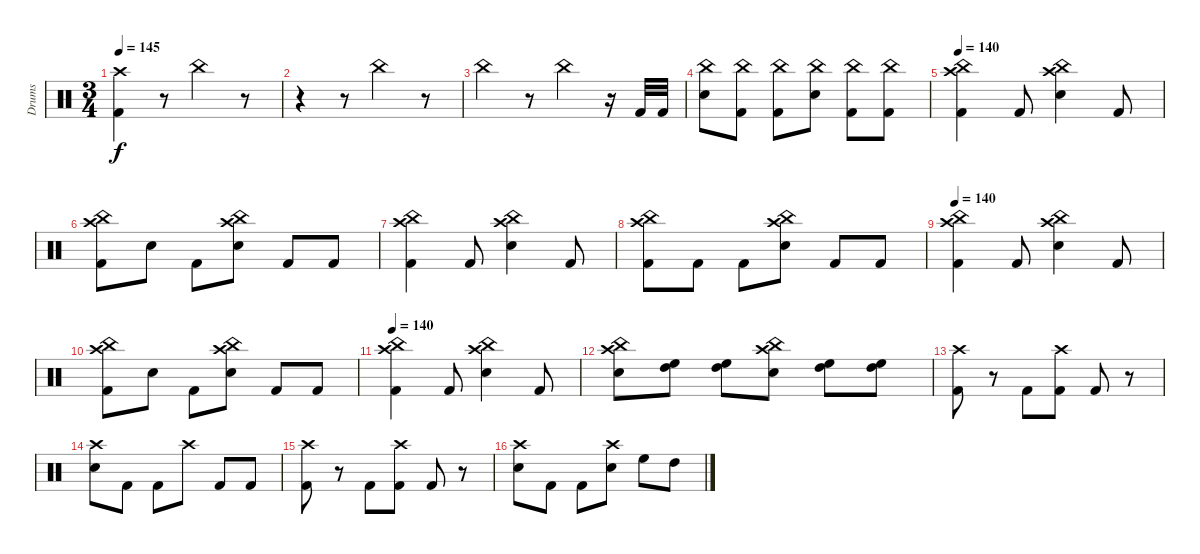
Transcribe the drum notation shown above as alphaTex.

\track ("Drums" "Drums") {instrument percussion}
\staff {score}
\articulation defaults
\ts (3 4)
\tempo 145
\clef neutral
\ks c
("Crash high (hit)" "Kick (hit) 2").4{dy f} r.8 "China (hit)".4 r.8 |
r.4 r.8 "China (hit)".4 r.8 |
"China (hit)".4 r.8 "China (hit)".4 r.16 "Kick (hit) 2".32 "Kick (hit) 2".32 |
("China (hit)" "Electric Snare (hit)").8 ("China (hit)" "Kick (hit) 2").8 ("China (hit)" "Kick (hit) 2").8 ("China (hit)" "Electric Snare (hit)").8 ("China (hit)" "Kick (hit) 2").8 ("China (hit)" "Kick (hit) 2").8 |
\tempo 140
("Crash high (hit)" "China (hit)" "Kick (hit) 2").4 "Kick (hit) 2".8 ("Crash high (hit)" "China (hit)" "Electric Snare (hit)").4 "Kick (hit) 2".8 |
("Crash high (hit)" "China (hit)" "Kick (hit) 2").8 "Electric Snare (hit)".8 "Kick (hit) 2".8 ("Crash high (hit)" "China (hit)" "Electric Snare (hit)").8 "Kick (hit) 2".8 "Kick (hit) 2".8 |
("Crash high (hit)" "China (hit)" "Kick (hit) 2").4 "Kick (hit) 2".8 ("Crash high (hit)" "China (hit)" "Electric Snare (hit)").4 "Kick (hit) 2".8 |
("Crash high (hit)" "China (hit)" "Kick (hit) 2").8 "Kick (hit) 2".8 "Kick (hit) 2".8 ("Crash high (hit)" "China (hit)" "Electric Snare (hit)").8 "Kick (hit) 2".8 "Kick (hit) 2".8 |
\tempo 140
("Crash high (hit)" "China (hit)" "Kick (hit) 2").4 "Kick (hit) 2".8 ("Crash high (hit)" "China (hit)" "Electric Snare (hit)").4 "Kick (hit) 2".8 |
("Crash high (hit)" "China (hit)" "Kick (hit) 2").8 "Electric Snare (hit)".8 "Kick (hit) 2".8 ("Crash high (hit)" "China (hit)" "Electric Snare (hit)").8 "Kick (hit) 2".8 "Kick (hit) 2".8 |
\tempo 140
("Crash high (hit)" "China (hit)" "Kick (hit) 2").4 "Kick (hit) 2".8 ("Crash high (hit)" "China (hit)" "Electric Snare (hit)").4 "Kick (hit) 2".8 |
("Crash high (hit)" "China (hit)" "Electric Snare (hit)").8 ("High Floor Tom (hit)" "High Tom (hit)").8 ("High Floor Tom (hit)" "High Tom (hit)").8 ("Crash high (hit)" "China (hit)" "Electric Snare (hit)").8 ("High Floor Tom (hit)" "High Tom (hit)").8 ("High Floor Tom (hit)" "High Tom (hit)").8 |
("Crash high (hit)" "Kick (hit) 2").8 r.8 "Kick (hit) 2".8 ("Crash high (hit)" "Kick (hit) 2").8 "Kick (hit) 2".8 r.8 |
("Crash high (hit)" "Electric Snare (hit)").8 "Kick (hit) 2".8 "Kick (hit) 2".8 "Crash high (hit)".8 "Kick (hit) 2".8 "Kick (hit) 2".8 |
("Crash high (hit)" "Kick (hit) 2").8 r.8 "Kick (hit) 2".8 ("Crash high (hit)" "Kick (hit) 2").8 "Kick (hit) 2".8 r.8 |
("Crash high (hit)" "Electric Snare (hit)").8 "Kick (hit) 2".8 "Kick (hit) 2".8 ("Crash high (hit)" "Electric Snare (hit)").8 "High Floor Tom (hit)".8 "High Tom (hit)".8
